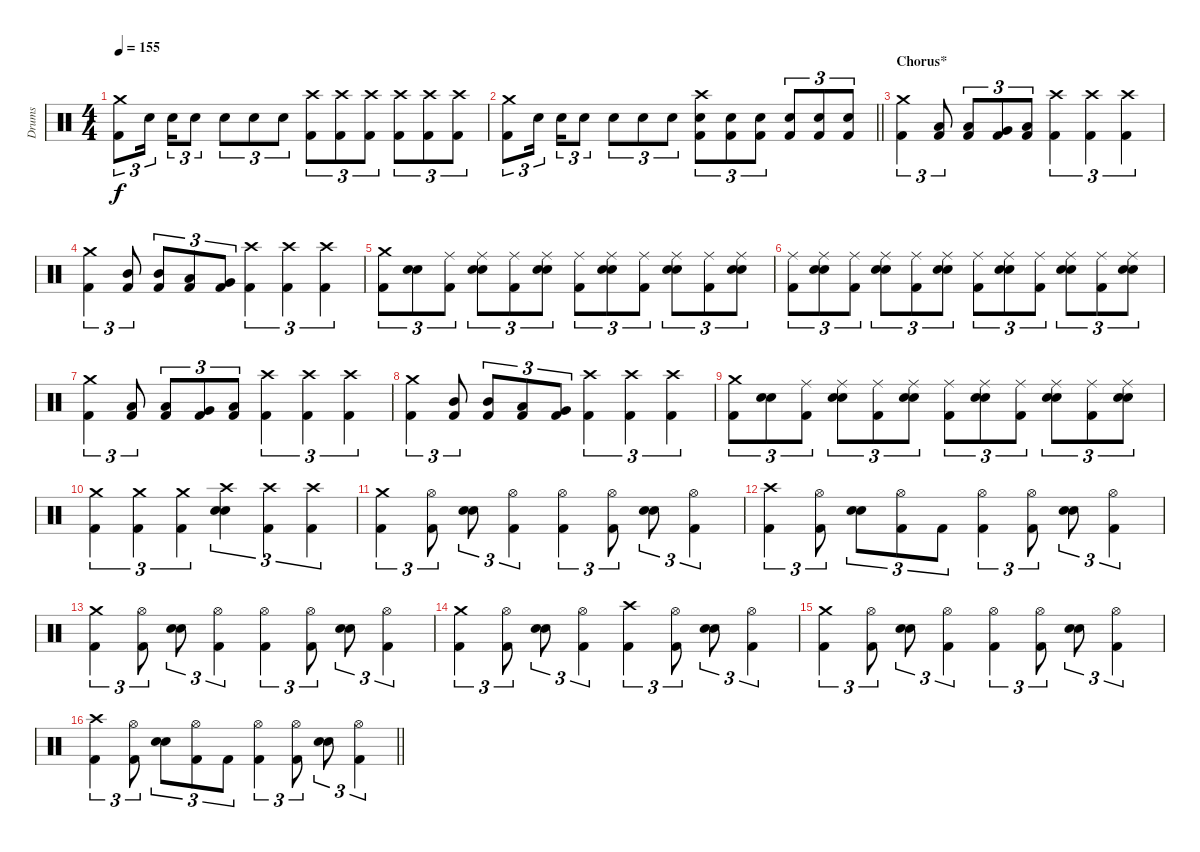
\track ("Drums" "Drums") {instrument percussion}
\staff {score}
\articulation defaults
\ts (4 4)
\tempo 155
\clef neutral
\ks c
("Crash medium (hit)" "Kick (hit) 2").8{tu (3 2) dy f} "Electric Snare (hit)".16{tu (3 2) beam splitsecondary} "Electric Snare (hit)".16{tu (3 2)} "Electric Snare (hit)".8{tu (3 2)} "Electric Snare (hit)".8{tu (3 2)} "Electric Snare (hit)".8{tu (3 2)} "Electric Snare (hit)".8{tu (3 2)} ("Crash high (hit)" "Kick (hit) 2").8{tu (3 2)} ("Crash high (hit)" "Kick (hit) 2").8{tu (3 2)} ("Crash high (hit)" "Kick (hit) 2").8{tu (3 2)} ("Crash high (hit)" "Kick (hit) 2").8{tu (3 2)} ("Crash high (hit)" "Kick (hit) 2").8{tu (3 2)} ("Crash high (hit)" "Kick (hit) 2").8{tu (3 2)} |
\barLineRight lightlight
("Crash medium (hit)" "Kick (hit) 2").8{tu (3 2)} "Electric Snare (hit)".16{tu (3 2) beam splitsecondary} "Electric Snare (hit)".16{tu (3 2)} "Electric Snare (hit)".8{tu (3 2)} "Electric Snare (hit)".8{tu (3 2)} "Electric Snare (hit)".8{tu (3 2)} "Electric Snare (hit)".8{tu (3 2)} ("Crash high (hit)" "Electric Snare (hit)" "Kick (hit) 2").8{tu (3 2)} ("Electric Snare (hit)" "Kick (hit) 2").8{tu (3 2)} ("Electric Snare (hit)" "Kick (hit) 2").8{tu (3 2)} ("Electric Snare (hit)" "Kick (hit) 2").8{tu (3 2)} ("Electric Snare (hit)" "Kick (hit) 2").8{tu (3 2)} ("Electric Snare (hit)" "Kick (hit) 2").8{tu (3 2)} |
\section ("" "Chorus*")
("Crash medium (hit)" "Kick (hit) 2").4{tu (3 2)} ("Low Tom (hit)" "Kick (hit) 2").8{tu (3 2)} ("Low Tom (hit)" "Kick (hit) 2").8{tu (3 2)} ("Very Low Tom (hit)" "Kick (hit) 2").8{tu (3 2)} ("Low Floor Tom (hit)" "Kick (hit) 2").8{tu (3 2)} ("Crash high (hit)" "Kick (hit) 2").4{tu (3 2)} ("Crash high (hit)" "Kick (hit) 2").4{tu (3 2)} ("Crash high (hit)" "Kick (hit) 2").4{tu (3 2)} |
("Crash medium (hit)" "Kick (hit) 2").4{tu (3 2)} ("Mid Tom (hit)" "Kick (hit) 2").8{tu (3 2)} ("Mid Tom (hit)" "Kick (hit) 2").8{tu (3 2)} ("Low Tom (hit)" "Kick (hit) 2").8{tu (3 2)} ("Very Low Tom (hit)" "Kick (hit) 2").8{tu (3 2)} ("Crash high (hit)" "Kick (hit) 2").4{tu (3 2)} ("Crash high (hit)" "Kick (hit) 2").4{tu (3 2)} ("Crash high (hit)" "Kick (hit) 2").4{tu (3 2)} |
("Crash medium (hit)" "Kick (hit) 2").8{tu (3 2)} ("Electric Snare (hit)" "Electric Snare (hit)").8{tu (3 2)} ("Ride (middle)" "Kick (hit) 2").8{tu (3 2)} ("Ride (middle)" "Electric Snare (hit)" "Electric Snare (hit)").8{tu (3 2)} ("Ride (middle)" "Kick (hit) 2").8{tu (3 2)} ("Ride (middle)" "Electric Snare (hit)" "Electric Snare (hit)").8{tu (3 2)} ("Ride (middle)" "Kick (hit) 2").8{tu (3 2)} ("Ride (middle)" "Electric Snare (hit)" "Electric Snare (hit)").8{tu (3 2)} ("Ride (middle)" "Kick (hit) 2").8{tu (3 2)} ("Ride (middle)" "Electric Snare (hit)" "Electric Snare (hit)").8{tu (3 2)} ("Ride (middle)" "Kick (hit) 2").8{tu (3 2)} ("Ride (middle)" "Electric Snare (hit)" "Electric Snare (hit)").8{tu (3 2)} |
("Ride (middle)" "Kick (hit) 2").8{tu (3 2)} ("Ride (middle)" "Electric Snare (hit)" "Electric Snare (hit)").8{tu (3 2)} ("Ride (middle)" "Kick (hit) 2").8{tu (3 2)} ("Ride (middle)" "Electric Snare (hit)" "Electric Snare (hit)").8{tu (3 2)} ("Ride (middle)" "Kick (hit) 2").8{tu (3 2)} ("Ride (middle)" "Electric Snare (hit)" "Electric Snare (hit)").8{tu (3 2)} ("Ride (middle)" "Kick (hit) 2").8{tu (3 2)} ("Ride (middle)" "Electric Snare (hit)" "Electric Snare (hit)").8{tu (3 2)} ("Ride (middle)" "Kick (hit) 2").8{tu (3 2)} ("Ride (middle)" "Electric Snare (hit)" "Electric Snare (hit)").8{tu (3 2)} ("Ride (middle)" "Kick (hit) 2").8{tu (3 2)} ("Ride (middle)" "Electric Snare (hit)" "Electric Snare (hit)").8{tu (3 2)} |
("Crash medium (hit)" "Kick (hit) 2").4{tu (3 2)} ("Low Tom (hit)" "Kick (hit) 2").8{tu (3 2)} ("Low Tom (hit)" "Kick (hit) 2").8{tu (3 2)} ("Very Low Tom (hit)" "Kick (hit) 2").8{tu (3 2)} ("Low Floor Tom (hit)" "Kick (hit) 2").8{tu (3 2)} ("Crash high (hit)" "Kick (hit) 2").4{tu (3 2)} ("Crash high (hit)" "Kick (hit) 2").4{tu (3 2)} ("Crash high (hit)" "Kick (hit) 2").4{tu (3 2)} |
("Crash medium (hit)" "Kick (hit) 2").4{tu (3 2)} ("Mid Tom (hit)" "Kick (hit) 2").8{tu (3 2)} ("Mid Tom (hit)" "Kick (hit) 2").8{tu (3 2)} ("Low Tom (hit)" "Kick (hit) 2").8{tu (3 2)} ("Very Low Tom (hit)" "Kick (hit) 2").8{tu (3 2)} ("Crash high (hit)" "Kick (hit) 2").4{tu (3 2)} ("Crash high (hit)" "Kick (hit) 2").4{tu (3 2)} ("Crash high (hit)" "Kick (hit) 2").4{tu (3 2)} |
("Crash medium (hit)" "Kick (hit) 2").8{tu (3 2)} ("Electric Snare (hit)" "Electric Snare (hit)").8{tu (3 2)} ("Ride (middle)" "Kick (hit) 2").8{tu (3 2)} ("Ride (middle)" "Electric Snare (hit)" "Electric Snare (hit)").8{tu (3 2)} ("Ride (middle)" "Kick (hit) 2").8{tu (3 2)} ("Ride (middle)" "Electric Snare (hit)" "Electric Snare (hit)").8{tu (3 2)} ("Ride (middle)" "Kick (hit) 2").8{tu (3 2)} ("Ride (middle)" "Electric Snare (hit)" "Electric Snare (hit)").8{tu (3 2)} ("Ride (middle)" "Kick (hit) 2").8{tu (3 2)} ("Ride (middle)" "Electric Snare (hit)" "Electric Snare (hit)").8{tu (3 2)} ("Ride (middle)" "Kick (hit) 2").8{tu (3 2)} ("Ride (middle)" "Electric Snare (hit)" "Electric Snare (hit)").8{tu (3 2)} |
("Crash medium (hit)" "Kick (hit) 2").4{tu (3 2)} ("Crash medium (hit)" "Kick (hit) 2").4{tu (3 2)} ("Crash medium (hit)" "Kick (hit) 2").4{tu (3 2)} ("Crash high (hit)" "Electric Snare (hit)" "Electric Snare (hit)").4{tu (3 2)} ("Crash high (hit)" "Kick (hit) 2").4{tu (3 2)} ("Crash high (hit)" "Kick (hit) 2").4{tu (3 2)} |
("Crash medium (hit)" "Kick (hit) 2").4{tu (3 2)} ("Hi-Hat (open)" "Kick (hit) 2").8{tu (3 2)} ("Electric Snare (hit)" "Electric Snare (hit)").8{tu (3 2)} ("Hi-Hat (open)" "Kick (hit) 2").4{tu (3 2)} ("Hi-Hat (open)" "Kick (hit) 2").4{tu (3 2)} ("Hi-Hat (open)" "Kick (hit) 2").8{tu (3 2)} ("Electric Snare (hit)" "Electric Snare (hit)").8{tu (3 2)} ("Hi-Hat (open)" "Kick (hit) 2").4{tu (3 2)} |
("Crash high (hit)" "Kick (hit) 2").4{tu (3 2)} ("Hi-Hat (open)" "Kick (hit) 2").8{tu (3 2)} ("Electric Snare (hit)" "Electric Snare (hit)").8{tu (3 2)} ("Hi-Hat (open)" "Kick (hit) 2").8{tu (3 2)} "Kick (hit) 2".8{tu (3 2)} ("Hi-Hat (open)" "Kick (hit) 2").4{tu (3 2)} ("Hi-Hat (open)" "Kick (hit) 2").8{tu (3 2)} ("Electric Snare (hit)" "Electric Snare (hit)").8{tu (3 2)} ("Hi-Hat (open)" "Kick (hit) 2").4{tu (3 2)} |
("Crash medium (hit)" "Kick (hit) 2").4{tu (3 2)} ("Hi-Hat (open)" "Kick (hit) 2").8{tu (3 2)} ("Electric Snare (hit)" "Electric Snare (hit)").8{tu (3 2)} ("Hi-Hat (open)" "Kick (hit) 2").4{tu (3 2)} ("Hi-Hat (open)" "Kick (hit) 2").4{tu (3 2)} ("Hi-Hat (open)" "Kick (hit) 2").8{tu (3 2)} ("Electric Snare (hit)" "Electric Snare (hit)").8{tu (3 2)} ("Hi-Hat (open)" "Kick (hit) 2").4{tu (3 2)} |
("Crash medium (hit)" "Kick (hit) 2").4{tu (3 2)} ("Hi-Hat (open)" "Kick (hit) 2").8{tu (3 2)} ("Electric Snare (hit)" "Electric Snare (hit)").8{tu (3 2)} ("Hi-Hat (open)" "Kick (hit) 2").4{tu (3 2)} ("Crash high (hit)" "Kick (hit) 2").4{tu (3 2)} ("Hi-Hat (open)" "Kick (hit) 2").8{tu (3 2)} ("Electric Snare (hit)" "Electric Snare (hit)").8{tu (3 2)} ("Hi-Hat (open)" "Kick (hit) 2").4{tu (3 2)} |
("Crash medium (hit)" "Kick (hit) 2").4{tu (3 2)} ("Hi-Hat (open)" "Kick (hit) 2").8{tu (3 2)} ("Electric Snare (hit)" "Electric Snare (hit)").8{tu (3 2)} ("Hi-Hat (open)" "Kick (hit) 2").4{tu (3 2)} ("Hi-Hat (open)" "Kick (hit) 2").4{tu (3 2)} ("Hi-Hat (open)" "Kick (hit) 2").8{tu (3 2)} ("Electric Snare (hit)" "Electric Snare (hit)").8{tu (3 2)} ("Hi-Hat (open)" "Kick (hit) 2").4{tu (3 2)} |
\barLineRight lightlight
("Crash high (hit)" "Kick (hit) 2").4{tu (3 2)} ("Hi-Hat (open)" "Kick (hit) 2").8{tu (3 2)} ("Electric Snare (hit)" "Electric Snare (hit)").8{tu (3 2)} ("Hi-Hat (open)" "Kick (hit) 2").8{tu (3 2)} "Kick (hit) 2".8{tu (3 2)} ("Hi-Hat (open)" "Kick (hit) 2").4{tu (3 2)} ("Hi-Hat (open)" "Kick (hit) 2").8{tu (3 2)} ("Electric Snare (hit)" "Electric Snare (hit)").8{tu (3 2)} ("Hi-Hat (open)" "Kick (hit) 2").4{tu (3 2)}
